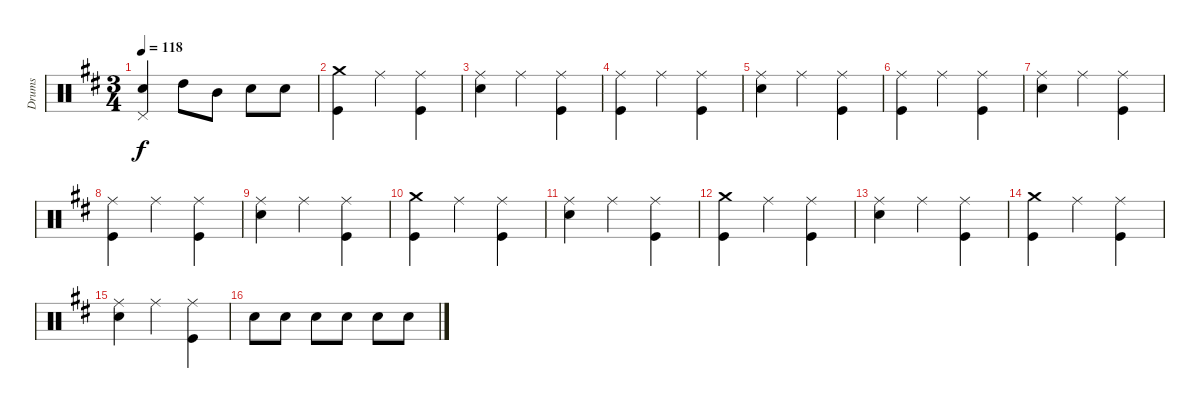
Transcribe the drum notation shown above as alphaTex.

\track ("Drums" "Drums") {instrument percussion}
\staff {score}
\articulation defaults
\ts (3 4)
\tempo 118
\clef neutral
\ks d
("Pedal Hi-Hat (hit)" "Snare (hit) 2").4{dy f} "High Tom (hit)".8 "Mid Tom (hit)".8 "Snare (hit) 2".8 "Snare (hit) 2".8 |
("Crash medium (hit)" "Kick (hit)").4 "Ride (middle)".4 ("Ride (middle)" "Kick (hit)").4 |
("Ride (middle)" "Snare (hit) 2").4 "Ride (middle)".4 ("Ride (middle)" "Kick (hit)").4 |
("Ride (middle)" "Kick (hit)").4 "Ride (middle)".4 ("Ride (middle)" "Kick (hit)").4 |
("Ride (middle)" "Snare (hit) 2").4 "Ride (middle)".4 ("Ride (middle)" "Kick (hit)").4 |
("Ride (middle)" "Kick (hit)").4 "Ride (middle)".4 ("Ride (middle)" "Kick (hit)").4 |
("Ride (middle)" "Snare (hit) 2").4 "Ride (middle)".4 ("Ride (middle)" "Kick (hit)").4 |
("Ride (middle)" "Kick (hit)").4 "Ride (middle)".4 ("Ride (middle)" "Kick (hit)").4 |
("Ride (middle)" "Snare (hit) 2").4 "Ride (middle)".4 ("Ride (middle)" "Kick (hit)").4 |
("Crash medium (hit)" "Kick (hit)").4 "Ride (middle)".4 ("Ride (middle)" "Kick (hit)").4 |
("Ride (middle)" "Snare (hit) 2").4 "Ride (middle)".4 ("Ride (middle)" "Kick (hit)").4 |
("Crash medium (hit)" "Kick (hit)").4 "Ride (middle)".4 ("Ride (middle)" "Kick (hit)").4 |
("Ride (middle)" "Snare (hit) 2").4 "Ride (middle)".4 ("Ride (middle)" "Kick (hit)").4 |
("Crash medium (hit)" "Kick (hit)").4 "Ride (middle)".4 ("Ride (middle)" "Kick (hit)").4 |
("Ride (middle)" "Snare (hit) 2").4 "Ride (middle)".4 ("Ride (middle)" "Kick (hit)").4 |
"Snare (hit) 2".8 "Snare (hit) 2".8 "Snare (hit) 2".8 "Snare (hit) 2".8 "Snare (hit) 2".8 "Snare (hit) 2".8
